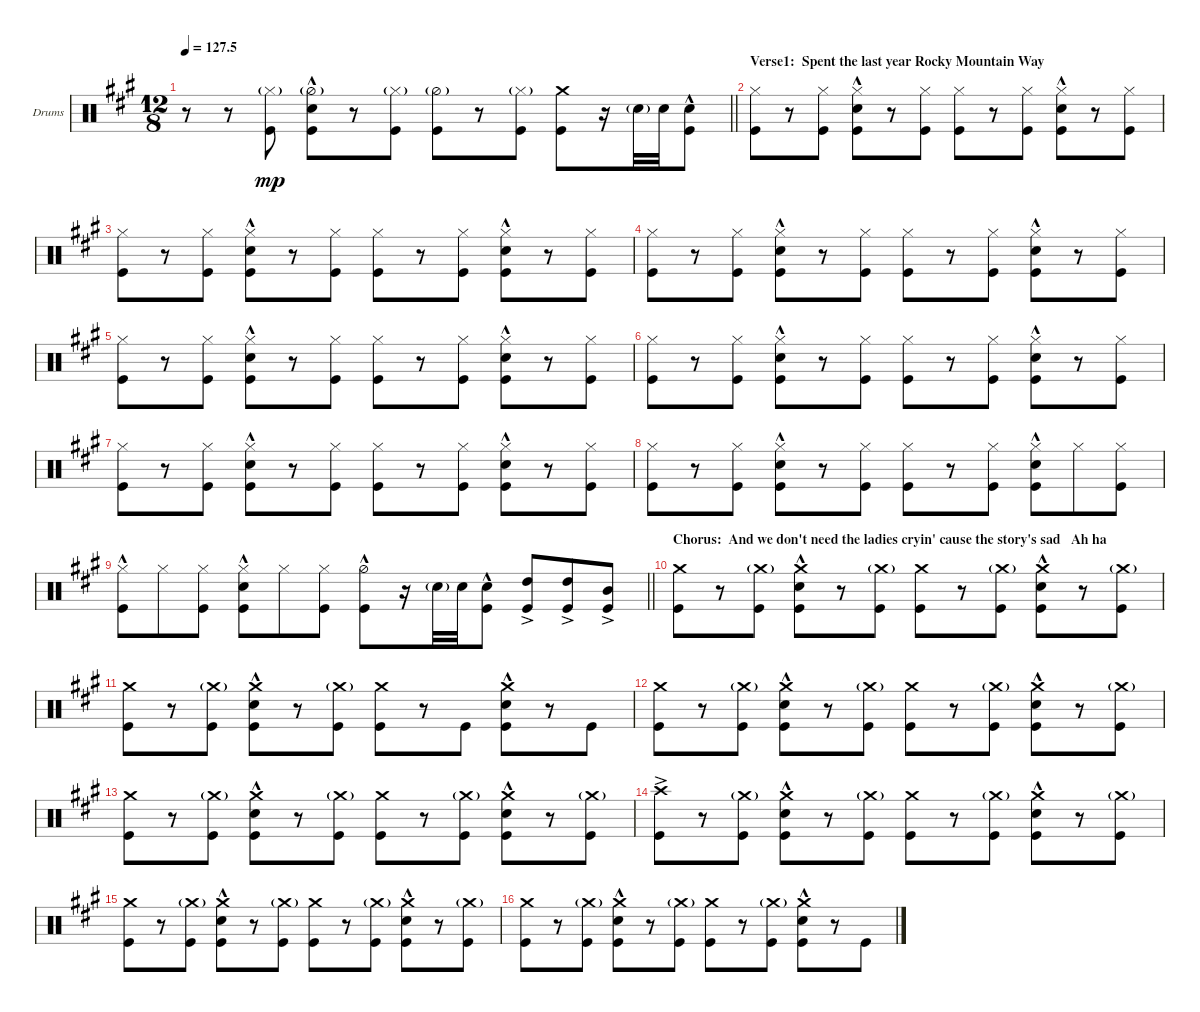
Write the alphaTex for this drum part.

\bracketExtendMode groupsimilarinstruments
\firstSystemTrackNameOrientation horizontal
\otherSystemsTrackNameOrientation horizontal
\track ("Drumkit" "Drums") {instrument percussion}
\staff {score}
\articulation defaults
\ts (12 8)
\tempo
127.5
\accidentals auto
\clef neutral
\ottava regular
\simile none
\scale
0.333333
\barLineRight lightlight
\ks a
r.8{dy mp} r.8 ("Kick (hit)" "Hi-Hat (closed)"{g}).8 ("Kick (hit)" "Hi-Hat (half)"{g} "Snare (hit) 2"{hac}).8 r.8 ("Kick (hit)" "Hi-Hat (closed)"{g}).8 ("Kick (hit)" "Hi-Hat (half)"{g}).8 r.8 ("Kick (hit)" "Hi-Hat (closed)"{g}).8 ("Kick (hit)" "Crash medium (hit)").8 r.16 "Snare (hit) 2"{g}.32 "Snare (hit) 2".32 ("Kick (hit)" "Snare (hit) 2"{hac}).8 |
\section ("" "Verse1:  Spent the last year Rocky Mountain Way")
\scale
0.333333 ("Kick (hit)" "Hi-Hat (closed)").8 r.8 ("Kick (hit)" "Hi-Hat (closed)").8 ("Kick (hit)" "Snare (hit) 2"{hac} "Hi-Hat (closed)").8 r.8 ("Kick (hit)" "Hi-Hat (closed)").8 ("Kick (hit)" "Hi-Hat (closed)").8 r.8 ("Kick (hit)" "Hi-Hat (closed)").8 ("Kick (hit)" "Snare (hit) 2"{hac} "Hi-Hat (closed)").8 r.8 ("Kick (hit)" "Hi-Hat (closed)").8 |
\scale
0.333333 ("Kick (hit)" "Hi-Hat (closed)").8 r.8 ("Kick (hit)" "Hi-Hat (closed)").8 ("Kick (hit)" "Snare (hit) 2"{hac} "Hi-Hat (closed)").8 r.8 ("Kick (hit)" "Hi-Hat (closed)").8 ("Kick (hit)" "Hi-Hat (closed)").8 r.8 ("Kick (hit)" "Hi-Hat (closed)").8 ("Kick (hit)" "Snare (hit) 2"{hac} "Hi-Hat (closed)").8 r.8 ("Kick (hit)" "Hi-Hat (closed)").8 |
\scale
0.333333 ("Kick (hit)" "Hi-Hat (closed)").8 r.8 ("Kick (hit)" "Hi-Hat (closed)").8 ("Kick (hit)" "Snare (hit) 2"{hac} "Hi-Hat (closed)").8 r.8 ("Kick (hit)" "Hi-Hat (closed)").8 ("Kick (hit)" "Hi-Hat (closed)").8 r.8 ("Kick (hit)" "Hi-Hat (closed)").8 ("Kick (hit)" "Snare (hit) 2"{hac} "Hi-Hat (closed)").8 r.8 ("Kick (hit)" "Hi-Hat (closed)").8 |
\scale
0.333333 ("Kick (hit)" "Hi-Hat (closed)").8 r.8 ("Kick (hit)" "Hi-Hat (closed)").8 ("Kick (hit)" "Snare (hit) 2"{hac} "Hi-Hat (closed)").8 r.8 ("Kick (hit)" "Hi-Hat (closed)").8 ("Kick (hit)" "Hi-Hat (closed)").8 r.8 ("Kick (hit)" "Hi-Hat (closed)").8 ("Kick (hit)" "Snare (hit) 2"{hac} "Hi-Hat (closed)").8 r.8 ("Kick (hit)" "Hi-Hat (closed)").8 |
\scale
0.333333 ("Kick (hit)" "Hi-Hat (closed)").8 r.8 ("Kick (hit)" "Hi-Hat (closed)").8 ("Kick (hit)" "Snare (hit) 2"{hac} "Hi-Hat (closed)").8 r.8 ("Kick (hit)" "Hi-Hat (closed)").8 ("Kick (hit)" "Hi-Hat (closed)").8 r.8 ("Kick (hit)" "Hi-Hat (closed)").8 ("Kick (hit)" "Snare (hit) 2"{hac} "Hi-Hat (closed)").8 r.8 ("Kick (hit)" "Hi-Hat (closed)").8 |
\scale
0.333333 ("Kick (hit)" "Hi-Hat (closed)").8 r.8 ("Kick (hit)" "Hi-Hat (closed)").8 ("Kick (hit)" "Snare (hit) 2"{hac} "Hi-Hat (closed)").8 r.8 ("Kick (hit)" "Hi-Hat (closed)").8 ("Kick (hit)" "Hi-Hat (closed)").8 r.8 ("Kick (hit)" "Hi-Hat (closed)").8 ("Kick (hit)" "Snare (hit) 2"{hac} "Hi-Hat (closed)").8 r.8 ("Kick (hit)" "Hi-Hat (closed)").8 |
\scale
0.333333 ("Kick (hit)" "Hi-Hat (closed)").8 r.8 ("Kick (hit)" "Hi-Hat (closed)").8 ("Kick (hit)" "Snare (hit) 2"{hac} "Hi-Hat (closed)").8 r.8 ("Kick (hit)" "Hi-Hat (closed)").8 ("Kick (hit)" "Hi-Hat (closed)").8 r.8 ("Kick (hit)" "Hi-Hat (closed)").8 ("Kick (hit)" "Snare (hit) 2"{hac} "Hi-Hat (closed)").8 "Hi-Hat (closed)".8 ("Kick (hit)" "Hi-Hat (closed)").8 |
\scale
0.333333
\barLineRight lightlight
("Kick (hit)" "Hi-Hat (closed)"{hac}).8 "Hi-Hat (closed)".8 ("Kick (hit)" "Hi-Hat (closed)").8 ("Kick (hit)" "Snare (hit) 2"{hac} "Hi-Hat (closed)"{hac}).8 "Hi-Hat (closed)".8 ("Kick (hit)" "Hi-Hat (closed)").8 ("Kick (hit)" "Hi-Hat (half)"{hac}).8 r.16 "Snare (hit) 2"{g}.32 "Snare (hit) 2".32 ("Snare (hit) 2"{hac} "Kick (hit)").8 ("Kick (hit)" "High Tom (hit)"{ac}).8 ("High Tom (hit)"{ac} "Kick (hit)").8 ("Kick (hit)" "Mid Tom (hit)"{ac}).8 |
\section ("" "Chorus:  And we don't need the ladies cryin' cause the story's sad   Ah ha")
\scale
0.333333 ("Kick (hit)" "Crash medium (hit)").8 r.8 ("Kick (hit)" "Crash medium (hit)"{g}).8 ("Kick (hit)" "Snare (hit) 2"{hac} "Crash medium (hit)").8 r.8 ("Kick (hit)" "Crash medium (hit)"{g}).8 ("Kick (hit)" "Crash medium (hit)").8 r.8 ("Kick (hit)" "Crash medium (hit)"{g}).8 ("Kick (hit)" "Snare (hit) 2"{hac} "Crash medium (hit)").8 r.8 ("Kick (hit)" "Crash medium (hit)"{g}).8 |
\scale
0.333333 ("Kick (hit)" "Crash medium (hit)").8 r.8 ("Kick (hit)" "Crash medium (hit)"{g}).8 ("Kick (hit)" "Snare (hit) 2"{hac} "Crash medium (hit)").8 r.8 ("Kick (hit)" "Crash medium (hit)"{g}).8 ("Kick (hit)" "Crash medium (hit)").8 r.8 "Kick (hit)".8 ("Kick (hit)" "Snare (hit) 2"{hac} "Crash medium (hit)").8 r.8 "Kick (hit)".8 |
\scale
0.333333 ("Kick (hit)" "Crash medium (hit)").8 r.8 ("Kick (hit)" "Crash medium (hit)"{g}).8 ("Kick (hit)" "Snare (hit) 2"{hac} "Crash medium (hit)").8 r.8 ("Kick (hit)" "Crash medium (hit)"{g}).8 ("Kick (hit)" "Crash medium (hit)").8 r.8 ("Kick (hit)" "Crash medium (hit)"{g}).8 ("Kick (hit)" "Snare (hit) 2"{hac} "Crash medium (hit)").8 r.8 ("Kick (hit)" "Crash medium (hit)"{g}).8 |
\scale
0.333333 ("Kick (hit)" "Crash medium (hit)").8 r.8 ("Kick (hit)" "Crash medium (hit)"{g}).8 ("Kick (hit)" "Snare (hit) 2"{hac} "Crash medium (hit)").8 r.8 ("Kick (hit)" "Crash medium (hit)"{g}).8 ("Kick (hit)" "Crash medium (hit)").8 r.8 ("Kick (hit)" "Crash medium (hit)"{g}).8 ("Kick (hit)" "Snare (hit) 2"{hac} "Crash medium (hit)").8 r.8 ("Kick (hit)" "Crash medium (hit)"{g}).8 |
\scale
0.333333 ("Kick (hit)" "Crash high (hit)"{ac}).8 r.8 ("Kick (hit)" "Crash medium (hit)"{g}).8 ("Kick (hit)" "Snare (hit) 2"{hac} "Crash medium (hit)").8 r.8 ("Kick (hit)" "Crash medium (hit)"{g}).8 ("Kick (hit)" "Crash medium (hit)").8 r.8 ("Kick (hit)" "Crash medium (hit)"{g}).8 ("Kick (hit)" "Snare (hit) 2"{hac} "Crash medium (hit)").8 r.8 ("Kick (hit)" "Crash medium (hit)"{g}).8 |
\scale
0.333333 ("Kick (hit)" "Crash medium (hit)").8 r.8 ("Kick (hit)" "Crash medium (hit)"{g}).8 ("Kick (hit)" "Snare (hit) 2"{hac} "Crash medium (hit)").8 r.8 ("Kick (hit)" "Crash medium (hit)"{g}).8 ("Kick (hit)" "Crash medium (hit)").8 r.8 ("Kick (hit)" "Crash medium (hit)"{g}).8 ("Kick (hit)" "Snare (hit) 2"{hac} "Crash medium (hit)").8 r.8 ("Kick (hit)" "Crash medium (hit)"{g}).8 |
\scale
0.333333 ("Kick (hit)" "Crash medium (hit)").8 r.8 ("Kick (hit)" "Crash medium (hit)"{g}).8 ("Kick (hit)" "Snare (hit) 2"{hac} "Crash medium (hit)").8 r.8 ("Kick (hit)" "Crash medium (hit)"{g}).8 ("Kick (hit)" "Crash medium (hit)").8 r.8 ("Kick (hit)" "Crash medium (hit)"{g}).8 ("Kick (hit)" "Snare (hit) 2"{hac} "Crash medium (hit)").8 r.8 "Kick (hit)".8
